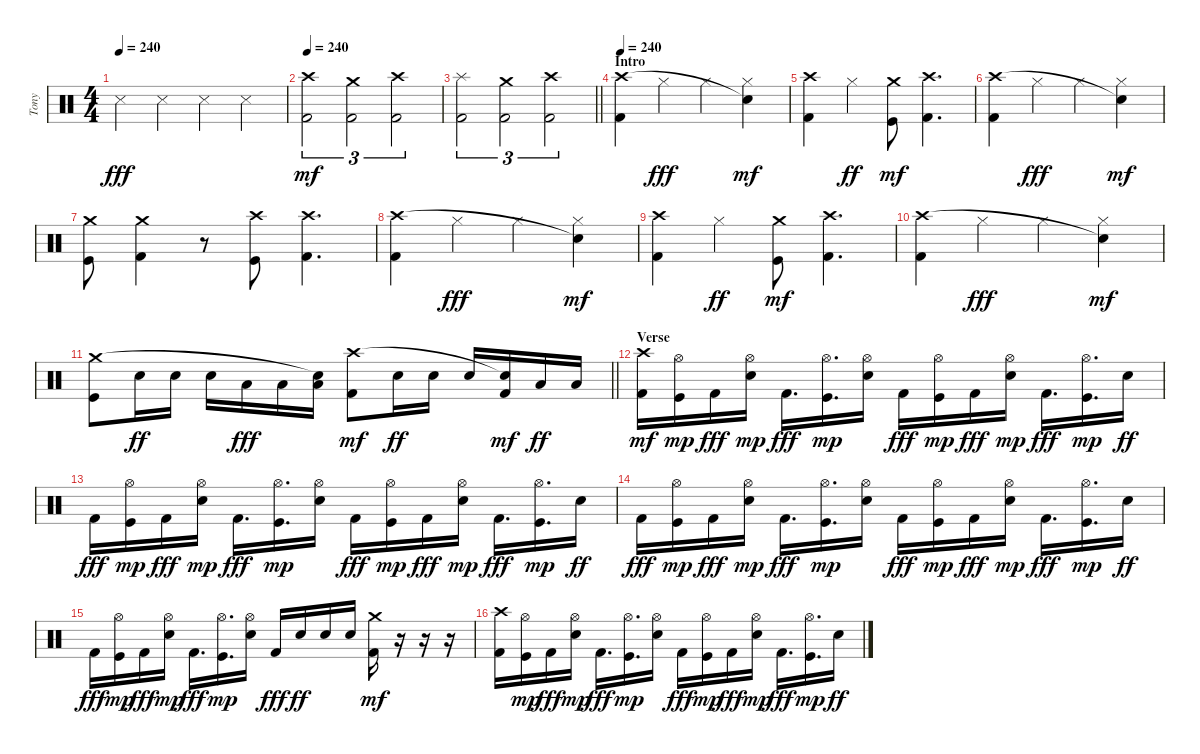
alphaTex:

\track ("Tony" "Tony") {instrument percussion}
\staff {score}
\articulation defaults
\ts (4 4)
\tempo 240
\clef neutral
\ks c "Snare (side stick) 3".4{dy fff} "Snare (side stick) 3".4 "Snare (side stick) 3".4 "Snare (side stick) 3".4
|
\tempo 240
("Kick (hit) 2" "Crash high (hit)").2{tu (3 2) dy mf} ("Kick (hit) 2" "Crash medium (hit)").2{tu (3 2)} ("Kick (hit) 2" "Crash high (hit)").2{tu (3 2)} |
\barLineRight lightlight
("Kick (hit) 2" "Splash (hit)").2{tu (3 2)} ("Kick (hit) 2" "Crash medium (hit)").2{tu (3 2)} ("Kick (hit) 2" "Crash high (hit)").2{tu (3 2)} |
\section ("" "Intro")
\tempo 240
("Kick (hit) 2" "Crash high (hit)").4 "Hi-Hat (closed)".4{dy fff} "Hi-Hat (closed)".4 ("Hi-Hat (closed)" "Snare (hit)"{t}).4{dy mf} |
("Kick (hit) 2" "Crash high (hit)").4 "Hi-Hat (closed)".4{dy ff} ("Kick (hit)" "Crash medium (hit)").8{dy mf} ("Kick (hit) 2" "Crash high (hit)").4{d} |
("Kick (hit) 2" "Crash high (hit)").4 "Hi-Hat (closed)".4{dy fff} "Hi-Hat (closed)".4 ("Hi-Hat (closed)" "Snare (hit)"{t}).4{dy mf} |
("Kick (hit)" "Crash medium (hit)").8 ("Kick (hit) 2" "Crash medium (hit)").4 r.8 ("Kick (hit)" "Crash high (hit)").8 ("Kick (hit) 2" "Crash high (hit)").4{d} |
("Kick (hit) 2" "Crash high (hit)").4 "Hi-Hat (closed)".4{dy fff} "Hi-Hat (closed)".4 ("Hi-Hat (closed)" "Snare (hit)"{t}).4{dy mf} |
("Kick (hit) 2" "Crash high (hit)").4 "Hi-Hat (closed)".4{dy ff} ("Kick (hit)" "Crash medium (hit)").8{dy mf} ("Kick (hit) 2" "Crash high (hit)").4{d} |
("Kick (hit) 2" "Crash high (hit)").4 "Hi-Hat (closed)".4{dy fff} "Hi-Hat (closed)".4 ("Hi-Hat (closed)" "Snare (hit)"{t}).4{dy mf} |
\barLineRight lightlight
("Kick (hit)" "Crash medium (hit)").8 "Snare (hit) 2".16{dy ff} "Snare (hit) 2".16 "Snare (hit) 2".16 "Low Tom (hit)".16{dy fff} "Low Tom (hit)".16 ("Low Tom (hit)" "Snare (hit)"{t}).16 ("Kick (hit) 2" "Crash high (hit)").8{dy mf} "Snare (hit) 2".16{dy ff} "Snare (hit) 2".16 "Snare (hit) 2".16 ("Kick (hit) 2" "Snare (hit)"{t}).16{dy mf} "Low Tom (hit)".16{dy ff} "Low Tom (hit)".16 |
\section ("" "Verse")
("Kick (hit) 2" "Crash high (hit)").16{dy mf} ("Kick (hit)" "Hi-Hat (open)").16{dy mp} "Kick (hit) 2".16{dy fff} ("Snare (hit) 2" "Hi-Hat (open)").16{dy mp} "Kick (hit) 2".16{d dy fff} ("Kick (hit)" "Hi-Hat (open)").16{d dy mp} ("Snare (hit) 2" "Hi-Hat (open)").16 "Kick (hit) 2".16{dy fff} ("Kick (hit)" "Hi-Hat (open)").16{dy mp} "Kick (hit) 2".16{dy fff} ("Snare (hit) 2" "Hi-Hat (open)").16{dy mp} "Kick (hit) 2".16{d dy fff} ("Kick (hit)" "Hi-Hat (open)").16{d dy mp} "Snare (hit) 2".16{dy ff} |
"Kick (hit) 2".16{dy fff} ("Kick (hit)" "Hi-Hat (open)").16{dy mp} "Kick (hit) 2".16{dy fff} ("Snare (hit) 2" "Hi-Hat (open)").16{dy mp} "Kick (hit) 2".16{d dy fff} ("Kick (hit)" "Hi-Hat (open)").16{d dy mp} ("Snare (hit) 2" "Hi-Hat (open)").16 "Kick (hit) 2".16{dy fff} ("Kick (hit)" "Hi-Hat (open)").16{dy mp} "Kick (hit) 2".16{dy fff} ("Snare (hit) 2" "Hi-Hat (open)").16{dy mp} "Kick (hit) 2".16{d dy fff} ("Kick (hit)" "Hi-Hat (open)").16{d dy mp} "Snare (hit) 2".16{dy ff} |
"Kick (hit) 2".16{dy fff} ("Kick (hit)" "Hi-Hat (open)").16{dy mp} "Kick (hit) 2".16{dy fff} ("Snare (hit) 2" "Hi-Hat (open)").16{dy mp} "Kick (hit) 2".16{d dy fff} ("Kick (hit)" "Hi-Hat (open)").16{d dy mp} ("Snare (hit) 2" "Hi-Hat (open)").16 "Kick (hit) 2".16{dy fff} ("Kick (hit)" "Hi-Hat (open)").16{dy mp} "Kick (hit) 2".16{dy fff} ("Snare (hit) 2" "Hi-Hat (open)").16{dy mp} "Kick (hit) 2".16{d dy fff} ("Kick (hit)" "Hi-Hat (open)").16{d dy mp} "Snare (hit) 2".16{dy ff} |
"Kick (hit) 2".16{dy fff} ("Kick (hit)" "Hi-Hat (open)").16{dy mp} "Kick (hit) 2".16{dy fff} ("Snare (hit) 2" "Hi-Hat (open)").16{dy mp} "Kick (hit) 2".16{d dy fff} ("Kick (hit)" "Hi-Hat (open)").16{d dy mp} ("Snare (hit) 2" "Hi-Hat (open)").16 "Kick (hit) 2".16{dy fff} "Snare (hit) 2".16{dy ff} "Snare (hit) 2".16 "Snare (hit) 2".16 ("Kick (hit) 2" "Crash medium (hit)").16{dy mf} r.16 r.16 r.16 |
("Kick (hit) 2" "Crash high (hit)").16 ("Kick (hit)" "Hi-Hat (open)").16{dy mp} "Kick (hit) 2".16{dy fff} ("Snare (hit) 2" "Hi-Hat (open)").16{dy mp} "Kick (hit) 2".16{d dy fff} ("Kick (hit)" "Hi-Hat (open)").16{d dy mp} ("Snare (hit) 2" "Hi-Hat (open)").16 "Kick (hit) 2".16{dy fff} ("Kick (hit)" "Hi-Hat (open)").16{dy mp} "Kick (hit) 2".16{dy fff} ("Snare (hit) 2" "Hi-Hat (open)").16{dy mp} "Kick (hit) 2".16{d dy fff} ("Kick (hit)" "Hi-Hat (open)").16{d dy mp} "Snare (hit) 2".16{dy ff}
